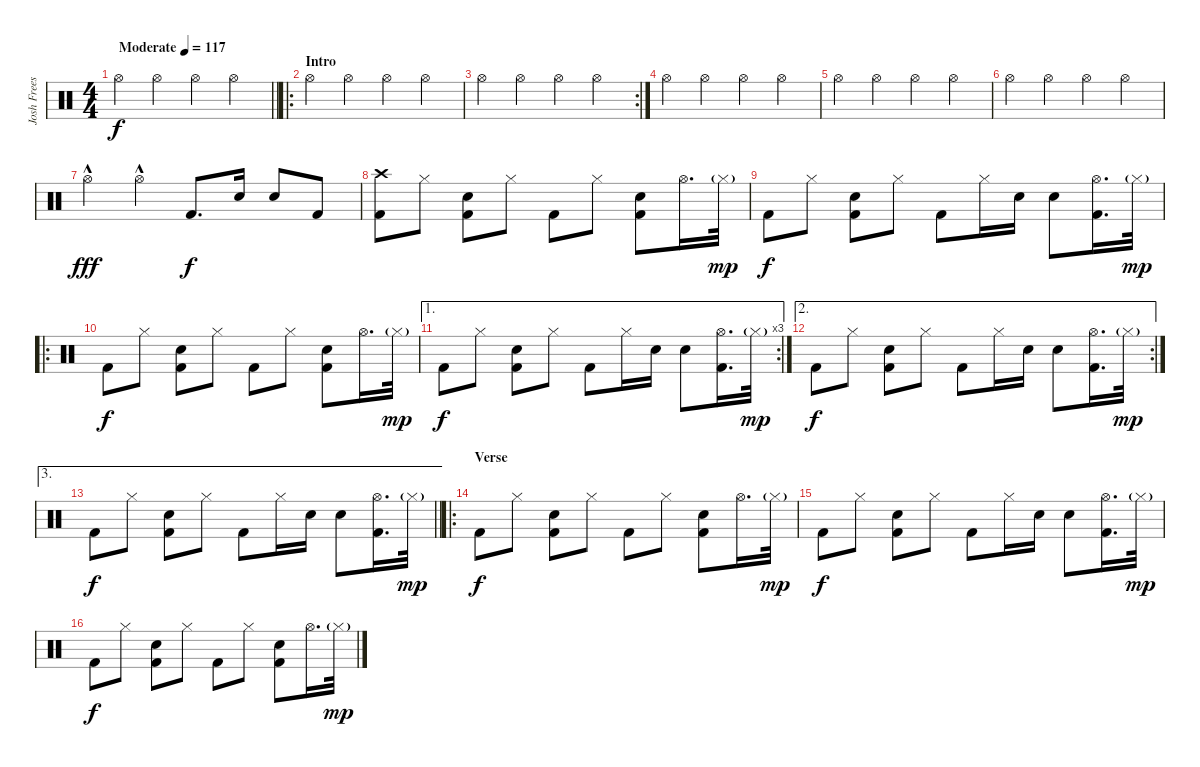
\track ("Josh Freese" "Josh Frees") {instrument percussion}
\staff {score}
\articulation defaults
\ts (4 4)
\tempo (117 "Moderate")
\clef neutral
\barLineRight lightlight
\ks c "Hi-Hat (open)".4{dy f} "Hi-Hat (open)".4 "Hi-Hat (open)".4 "Hi-Hat (open)".4
|
\ro
\section ("" "Intro")
"Hi-Hat (open)".4 "Hi-Hat (open)".4 "Hi-Hat (open)".4 "Hi-Hat (open)".4 |
\rc 2 "Hi-Hat (open)".4 "Hi-Hat (open)".4 "Hi-Hat (open)".4 "Hi-Hat (open)".4
|
"Hi-Hat (open)".4 "Hi-Hat (open)".4 "Hi-Hat (open)".4 "Hi-Hat (open)".4 |
"Hi-Hat (open)".4 "Hi-Hat (open)".4 "Hi-Hat (open)".4 "Hi-Hat (open)".4 |
"Hi-Hat (open)".4 "Hi-Hat (open)".4 "Hi-Hat (open)".4 "Hi-Hat (open)".4 |
"Hi-Hat (open)"{hac}.4{dy fff} "Hi-Hat (open)"{hac}.4 "Kick (hit) 2".8{d dy f} "Electric Snare (hit)".16 "Electric Snare (hit)".8 "Kick (hit) 2".8 |
("Crash high (hit)" "Kick (hit) 2").8 "Hi-Hat (closed)".8 ("Electric Snare (hit)" "Kick (hit) 2").8 "Hi-Hat (closed)".8 "Kick (hit) 2".8 "Hi-Hat (closed)".8 ("Electric Snare (hit)" "Kick (hit) 2").8 "Hi-Hat (open)".16{d} "Hi-Hat (closed)"{g}.32{dy mp} |
"Kick (hit) 2".8{dy f} "Hi-Hat (closed)".8 ("Electric Snare (hit)" "Kick (hit) 2").8 "Hi-Hat (closed)".8 "Kick (hit) 2".8 "Hi-Hat (closed)".16 "Electric Snare (hit)".16 "Electric Snare (hit)".8 ("Hi-Hat (open)" "Kick (hit) 2").16{d} "Hi-Hat (closed)"{g}.32{dy mp} |
\ro "Kick (hit) 2".8{dy f} "Hi-Hat (closed)".8
("Electric Snare (hit)" "Kick (hit) 2").8 "Hi-Hat (closed)".8 "Kick (hit) 2".8 "Hi-Hat (closed)".8 ("Electric Snare (hit)" "Kick (hit) 2").8 "Hi-Hat (open)".16{d} "Hi-Hat (closed)"{g}.32{dy mp} |
\ae 1
\rc 3 "Kick (hit) 2".8{dy f} "Hi-Hat (closed)".8
("Electric Snare (hit)" "Kick (hit) 2").8 "Hi-Hat (closed)".8 "Kick (hit) 2".8 "Hi-Hat (closed)".16 "Electric Snare (hit)".16 "Electric Snare (hit)".8 ("Hi-Hat (open)" "Kick (hit) 2").16{d} "Hi-Hat (closed)"{g}.32{dy mp} |
\ae 2
\rc 2 "Kick (hit) 2".8{dy f} "Hi-Hat (closed)".8
("Electric Snare (hit)" "Kick (hit) 2").8 "Hi-Hat (closed)".8 "Kick (hit) 2".8 "Hi-Hat (closed)".16 "Electric Snare (hit)".16 "Electric Snare (hit)".8 ("Hi-Hat (open)" "Kick (hit) 2").16{d} "Hi-Hat (closed)"{g}.32{dy mp} |
\ae 3
\barLineRight lightlight "Kick (hit) 2".8{dy f} "Hi-Hat (closed)".8
("Electric Snare (hit)" "Kick (hit) 2").8 "Hi-Hat (closed)".8 "Kick (hit) 2".8 "Hi-Hat (closed)".16 "Electric Snare (hit)".16 "Electric Snare (hit)".8 ("Hi-Hat (open)" "Kick (hit) 2").16{d} "Hi-Hat (closed)"{g}.32{dy mp} |
\ro
\section ("" "Verse")
"Kick (hit) 2".8{dy f} "Hi-Hat (closed)".8 ("Electric Snare (hit)" "Kick (hit) 2").8 "Hi-Hat (closed)".8 "Kick (hit) 2".8 "Hi-Hat (closed)".8 ("Electric Snare (hit)" "Kick (hit) 2").8 "Hi-Hat (open)".16{d} "Hi-Hat (closed)"{g}.32{dy mp} |
"Kick (hit) 2".8{dy f} "Hi-Hat (closed)".8 ("Electric Snare (hit)" "Kick (hit) 2").8 "Hi-Hat (closed)".8 "Kick (hit) 2".8 "Hi-Hat (closed)".16 "Electric Snare (hit)".16 "Electric Snare (hit)".8 ("Hi-Hat (open)" "Kick (hit) 2").16{d} "Hi-Hat (closed)"{g}.32{dy mp} |
"Kick (hit) 2".8{dy f} "Hi-Hat (closed)".8 ("Electric Snare (hit)" "Kick (hit) 2").8 "Hi-Hat (closed)".8 "Kick (hit) 2".8 "Hi-Hat (closed)".8 ("Electric Snare (hit)" "Kick (hit) 2").8 "Hi-Hat (open)".16{d} "Hi-Hat (closed)"{g}.32{dy mp}
